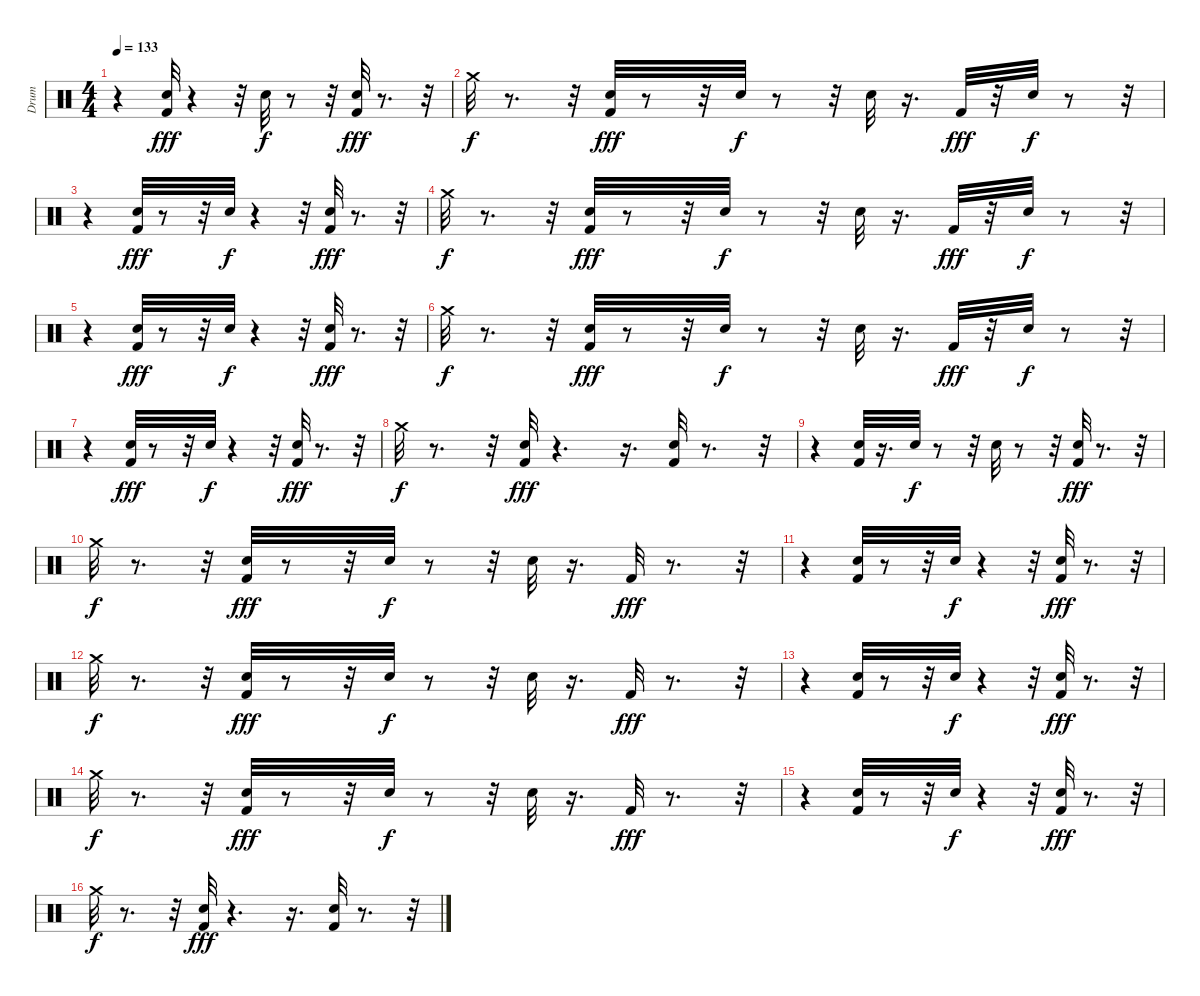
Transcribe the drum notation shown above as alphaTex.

\track ("Drum" "Drum") {instrument percussion}
\staff {score}
\articulation defaults
\ts (4 4)
\tempo 133
\clef neutral
\ks c
r.4{dy fff} ("Electric Snare (hit)" "Kick (hit) 2").32 r.4 r.32 "Electric Snare (hit)".32{dy f} r.8 r.32 ("Electric Snare (hit)" "Kick (hit) 2").32{dy fff} r.8{d} r.32 |
"Crash medium (hit)".32{dy f} r.8{d} r.32 ("Electric Snare (hit)" "Kick (hit) 2").32{dy fff} r.8 r.32 "Electric Snare (hit)".32{dy f} r.8 r.32 "Electric Snare (hit)".32 r.16{d} "Kick (hit) 2".32{dy fff} r.32 "Electric Snare (hit)".32{dy f} r.8 r.32 |
r.4 ("Kick (hit) 2" "Electric Snare (hit)").32{dy fff} r.8 r.32 "Electric Snare (hit)".32{dy f} r.4 r.32 ("Kick (hit) 2" "Electric Snare (hit)").32{dy fff} r.8{d} r.32 |
"Crash medium (hit)".32{dy f} r.8{d} r.32 ("Electric Snare (hit)" "Kick (hit) 2").32{dy fff} r.8 r.32 "Electric Snare (hit)".32{dy f} r.8 r.32 "Electric Snare (hit)".32 r.16{d} "Kick (hit) 2".32{dy fff} r.32 "Electric Snare (hit)".32{dy f} r.8 r.32 |
r.4 ("Kick (hit) 2" "Electric Snare (hit)").32{dy fff} r.8 r.32 "Electric Snare (hit)".32{dy f} r.4 r.32 ("Kick (hit) 2" "Electric Snare (hit)").32{dy fff} r.8{d} r.32 |
"Crash medium (hit)".32{dy f} r.8{d} r.32 ("Electric Snare (hit)" "Kick (hit) 2").32{dy fff} r.8 r.32 "Electric Snare (hit)".32{dy f} r.8 r.32 "Electric Snare (hit)".32 r.16{d} "Kick (hit) 2".32{dy fff} r.32 "Electric Snare (hit)".32{dy f} r.8 r.32 |
r.4 ("Kick (hit) 2" "Electric Snare (hit)").32{dy fff} r.8 r.32 "Electric Snare (hit)".32{dy f} r.4 r.32 ("Kick (hit) 2" "Electric Snare (hit)").32{dy fff} r.8{d} r.32 |
"Crash medium (hit)".32{dy f} r.8{d} r.32 ("Electric Snare (hit)" "Kick (hit) 2").32{dy fff} r.4{d} r.16{d} ("Electric Snare (hit)" "Kick (hit) 2").32 r.8{d} r.32 |
r.4 ("Kick (hit) 2" "Electric Snare (hit)").32 r.16{d} "Electric Snare (hit)".32{dy f} r.8 r.32 "Electric Snare (hit)".32 r.8 r.32 ("Electric Snare (hit)" "Kick (hit) 2").32{dy fff} r.8{d} r.32 |
"Crash medium (hit)".32{dy f} r.8{d} r.32 ("Electric Snare (hit)" "Kick (hit) 2").32{dy fff} r.8 r.32 "Electric Snare (hit)".32{dy f} r.8 r.32 "Electric Snare (hit)".32 r.16{d} "Kick (hit) 2".32{dy fff} r.8{d} r.32 |
r.4 ("Kick (hit) 2" "Electric Snare (hit)").32 r.8 r.32 "Electric Snare (hit)".32{dy f} r.4 r.32 ("Kick (hit) 2" "Electric Snare (hit)").32{dy fff} r.8{d} r.32 |
"Crash medium (hit)".32{dy f} r.8{d} r.32 ("Electric Snare (hit)" "Kick (hit) 2").32{dy fff} r.8 r.32 "Electric Snare (hit)".32{dy f} r.8 r.32 "Electric Snare (hit)".32 r.16{d} "Kick (hit) 2".32{dy fff} r.8{d} r.32 |
r.4 ("Kick (hit) 2" "Electric Snare (hit)").32 r.8 r.32 "Electric Snare (hit)".32{dy f} r.4 r.32 ("Kick (hit) 2" "Electric Snare (hit)").32{dy fff} r.8{d} r.32 |
"Crash medium (hit)".32{dy f} r.8{d} r.32 ("Electric Snare (hit)" "Kick (hit) 2").32{dy fff} r.8 r.32 "Electric Snare (hit)".32{dy f} r.8 r.32 "Electric Snare (hit)".32 r.16{d} "Kick (hit) 2".32{dy fff} r.8{d} r.32 |
r.4 ("Kick (hit) 2" "Electric Snare (hit)").32 r.8 r.32 "Electric Snare (hit)".32{dy f} r.4 r.32 ("Kick (hit) 2" "Electric Snare (hit)").32{dy fff} r.8{d} r.32 |
"Crash medium (hit)".32{dy f} r.8{d} r.32 ("Electric Snare (hit)" "Kick (hit) 2").32{dy fff} r.4{d} r.16{d} ("Electric Snare (hit)" "Kick (hit) 2").32 r.8{d} r.32
